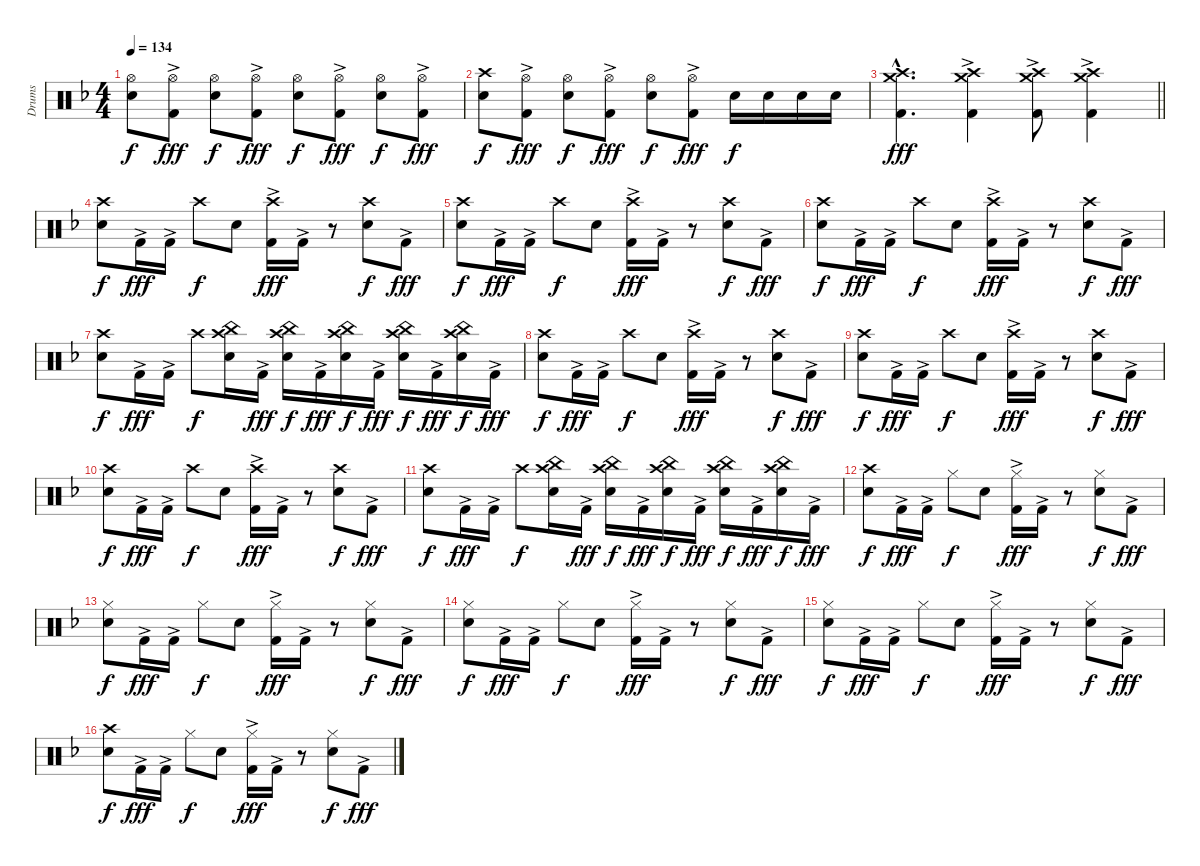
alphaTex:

\track ("Drums" "Drums") {instrument percussion}
\staff {score}
\articulation defaults
\ts (4 4)
\tempo 134
\clef neutral
\ks dminor
("Hi-Hat (open)" "Snare (hit) 2").8{dy f} ("Hi-Hat (open)" "Kick (hit) 2"{ac}).8{dy fff} ("Hi-Hat (open)" "Snare (hit) 2").8{dy f} ("Hi-Hat (open)" "Kick (hit) 2"{ac}).8{dy fff} ("Hi-Hat (open)" "Snare (hit) 2").8{dy f} ("Hi-Hat (open)" "Kick (hit) 2"{ac}).8{dy fff} ("Hi-Hat (open)" "Snare (hit) 2").8{dy f} ("Hi-Hat (open)" "Kick (hit) 2"{ac}).8{dy fff} |
("Crash high (hit)" "Snare (hit) 2").8{dy f} ("Hi-Hat (open)" "Kick (hit) 2"{ac}).8{dy fff} ("Hi-Hat (open)" "Snare (hit) 2").8{dy f} ("Hi-Hat (open)" "Kick (hit) 2"{ac}).8{dy fff} ("Hi-Hat (open)" "Snare (hit) 2").8{dy f} ("Hi-Hat (open)" "Kick (hit) 2"{ac}).8{dy fff} "Snare (hit) 2".16{dy f} "Snare (hit) 2".16 "Snare (hit) 2".16 "Snare (hit) 2".16 |
\barLineRight lightlight
("Crash high (hit)"{hac} "Crash medium (hit)"{hac} "Kick (hit) 2"{hac}).4{d dy fff} ("Crash high (hit)" "Crash medium (hit)" "Kick (hit) 2"{ac}).4 ("Crash high (hit)" "Crash medium (hit)" "Kick (hit) 2"{ac}).8 ("Crash high (hit)" "Crash medium (hit)" "Kick (hit) 2"{ac}).4 |
("Crash high (hit)" "Snare (hit) 2").8{dy f} "Kick (hit) 2"{ac}.16{dy fff} "Kick (hit) 2"{ac}.16 "Crash high (hit)".8{dy f} "Snare (hit) 2".8 ("Crash high (hit)" "Kick (hit) 2"{ac}).16{dy fff} "Kick (hit) 2"{ac}.16 r.8 ("Crash high (hit)" "Snare (hit) 2").8{dy f} "Kick (hit) 2"{ac}.8{dy fff} |
("Crash high (hit)" "Snare (hit) 2").8{dy f} "Kick (hit) 2"{ac}.16{dy fff} "Kick (hit) 2"{ac}.16 "Crash high (hit)".8{dy f} "Snare (hit) 2".8 ("Crash high (hit)" "Kick (hit) 2"{ac}).16{dy fff} "Kick (hit) 2"{ac}.16 r.8 ("Crash high (hit)" "Snare (hit) 2").8{dy f} "Kick (hit) 2"{ac}.8{dy fff} |
("Crash high (hit)" "Snare (hit) 2").8{dy f} "Kick (hit) 2"{ac}.16{dy fff} "Kick (hit) 2"{ac}.16 "Crash high (hit)".8{dy f} "Snare (hit) 2".8 ("Crash high (hit)" "Kick (hit) 2"{ac}).16{dy fff} "Kick (hit) 2"{ac}.16 r.8 ("Crash high (hit)" "Snare (hit) 2").8{dy f} "Kick (hit) 2"{ac}.8{dy fff} |
("Crash high (hit)" "Snare (hit) 2").8{dy f} "Kick (hit) 2"{ac}.16{dy fff} "Kick (hit) 2"{ac}.16 "Crash high (hit)".8{dy f} ("Crash high (hit)" "China (hit)" "Snare (hit) 2").16 "Kick (hit) 2"{ac}.16{dy fff} ("Crash high (hit)" "China (hit)" "Snare (hit) 2").16{dy f} "Kick (hit) 2"{ac}.16{dy fff} ("Crash high (hit)" "China (hit)" "Snare (hit) 2").16{dy f} "Kick (hit) 2"{ac}.16{dy fff} ("Crash high (hit)" "China (hit)" "Snare (hit) 2").16{dy f} "Kick (hit) 2"{ac}.16{dy fff} ("Crash high (hit)" "China (hit)" "Snare (hit) 2").16{dy f} "Kick (hit) 2"{ac}.16{dy fff} |
("Crash high (hit)" "Snare (hit) 2").8{dy f} "Kick (hit) 2"{ac}.16{dy fff} "Kick (hit) 2"{ac}.16 "Crash high (hit)".8{dy f} "Snare (hit) 2".8 ("Crash high (hit)" "Kick (hit) 2"{ac}).16{dy fff} "Kick (hit) 2"{ac}.16 r.8 ("Crash high (hit)" "Snare (hit) 2").8{dy f} "Kick (hit) 2"{ac}.8{dy fff} |
("Crash high (hit)" "Snare (hit) 2").8{dy f} "Kick (hit) 2"{ac}.16{dy fff} "Kick (hit) 2"{ac}.16 "Crash high (hit)".8{dy f} "Snare (hit) 2".8 ("Crash high (hit)" "Kick (hit) 2"{ac}).16{dy fff} "Kick (hit) 2"{ac}.16 r.8 ("Crash high (hit)" "Snare (hit) 2").8{dy f} "Kick (hit) 2"{ac}.8{dy fff} |
("Crash high (hit)" "Snare (hit) 2").8{dy f} "Kick (hit) 2"{ac}.16{dy fff} "Kick (hit) 2"{ac}.16 "Crash high (hit)".8{dy f} "Snare (hit) 2".8 ("Crash high (hit)" "Kick (hit) 2"{ac}).16{dy fff} "Kick (hit) 2"{ac}.16 r.8 ("Crash high (hit)" "Snare (hit) 2").8{dy f} "Kick (hit) 2"{ac}.8{dy fff} |
("Crash high (hit)" "Snare (hit) 2").8{dy f} "Kick (hit) 2"{ac}.16{dy fff} "Kick (hit) 2"{ac}.16 "Crash high (hit)".8{dy f} ("Crash high (hit)" "China (hit)" "Snare (hit) 2").16 "Kick (hit) 2"{ac}.16{dy fff} ("Crash high (hit)" "China (hit)" "Snare (hit) 2").16{dy f} "Kick (hit) 2"{ac}.16{dy fff} ("Crash high (hit)" "China (hit)" "Snare (hit) 2").16{dy f} "Kick (hit) 2"{ac}.16{dy fff} ("Crash high (hit)" "China (hit)" "Snare (hit) 2").16{dy f} "Kick (hit) 2"{ac}.16{dy fff} ("Crash high (hit)" "China (hit)" "Snare (hit) 2").16{dy f} "Kick (hit) 2"{ac}.16{dy fff} |
("Crash high (hit)" "Snare (hit) 2").8{dy f} "Kick (hit) 2"{ac}.16{dy fff} "Kick (hit) 2"{ac}.16 "Hi-Hat (closed)".8{dy f} "Snare (hit) 2".8 ("Hi-Hat (closed)" "Kick (hit) 2"{ac}).16{dy fff} "Kick (hit) 2"{ac}.16 r.8 ("Hi-Hat (closed)" "Snare (hit) 2").8{dy f} "Kick (hit) 2"{ac}.8{dy fff} |
("Hi-Hat (closed)" "Snare (hit) 2").8{dy f} "Kick (hit) 2"{ac}.16{dy fff} "Kick (hit) 2"{ac}.16 "Hi-Hat (closed)".8{dy f} "Snare (hit) 2".8 ("Hi-Hat (closed)" "Kick (hit) 2"{ac}).16{dy fff} "Kick (hit) 2"{ac}.16 r.8 ("Hi-Hat (closed)" "Snare (hit) 2").8{dy f} "Kick (hit) 2"{ac}.8{dy fff} |
("Hi-Hat (closed)" "Snare (hit) 2").8{dy f} "Kick (hit) 2"{ac}.16{dy fff} "Kick (hit) 2"{ac}.16 "Hi-Hat (closed)".8{dy f} "Snare (hit) 2".8 ("Hi-Hat (closed)" "Kick (hit) 2"{ac}).16{dy fff} "Kick (hit) 2"{ac}.16 r.8 ("Hi-Hat (closed)" "Snare (hit) 2").8{dy f} "Kick (hit) 2"{ac}.8{dy fff} |
("Hi-Hat (closed)" "Snare (hit) 2").8{dy f} "Kick (hit) 2"{ac}.16{dy fff} "Kick (hit) 2"{ac}.16 "Hi-Hat (closed)".8{dy f} "Snare (hit) 2".8 ("Hi-Hat (closed)" "Kick (hit) 2"{ac}).16{dy fff} "Kick (hit) 2"{ac}.16 r.8 ("Hi-Hat (closed)" "Snare (hit) 2").8{dy f} "Kick (hit) 2"{ac}.8{dy fff} |
("Crash high (hit)" "Snare (hit) 2").8{dy f} "Kick (hit) 2"{ac}.16{dy fff} "Kick (hit) 2"{ac}.16 "Hi-Hat (closed)".8{dy f} "Snare (hit) 2".8 ("Hi-Hat (closed)" "Kick (hit) 2"{ac}).16{dy fff} "Kick (hit) 2"{ac}.16 r.8 ("Hi-Hat (closed)" "Snare (hit) 2").8{dy f} "Kick (hit) 2"{ac}.8{dy fff}
